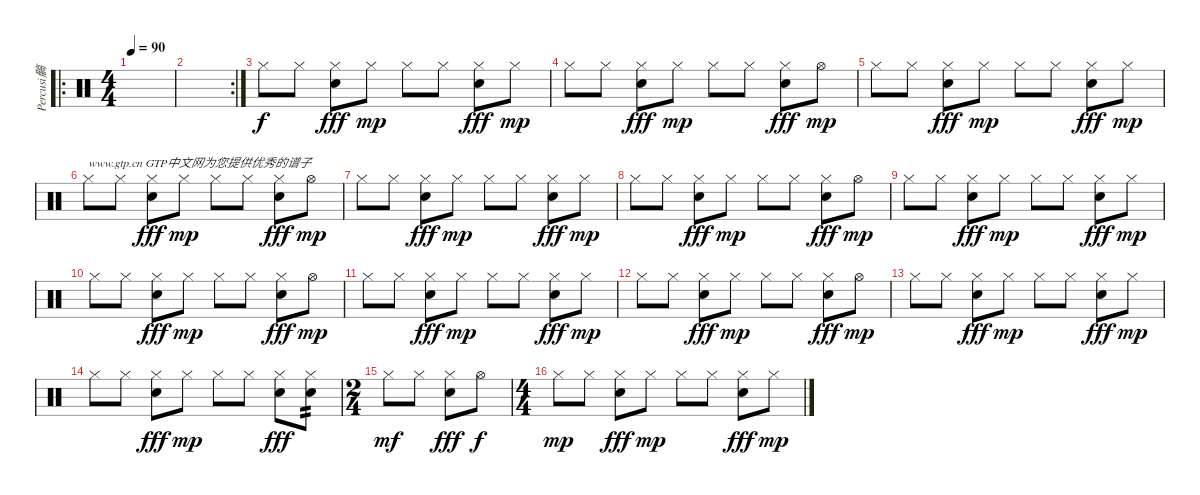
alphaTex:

\track ("Percusi髇" "Percusi髇") {instrument percussion}
\staff {score}
\articulation defaults
\ro
\ts (4 4)
\tempo 90
\clef neutral
\ks c
|
\rc 2
|
"Hi-Hat (closed)".8 "Hi-Hat (closed)".8 ("Hi-Hat (closed)" "Electric Snare (hit)").8{dy fff} "Hi-Hat (closed)".8{dy mp} "Hi-Hat (closed)".8 "Hi-Hat (closed)".8 ("Hi-Hat (closed)" "Electric Snare (hit)").8{dy fff} "Hi-Hat (closed)".8{dy mp} |
"Hi-Hat (closed)".8 "Hi-Hat (closed)".8 ("Hi-Hat (closed)" "Electric Snare (hit)").8{dy fff} "Hi-Hat (closed)".8{dy mp} "Hi-Hat (closed)".8 "Hi-Hat (closed)".8 ("Hi-Hat (closed)" "Electric Snare (hit)").8{dy fff} "Hi-Hat (open)".8{dy mp} |
"Hi-Hat (closed)".8 "Hi-Hat (closed)".8 ("Hi-Hat (closed)" "Electric Snare (hit)").8{dy fff} "Hi-Hat (closed)".8{dy mp} "Hi-Hat (closed)".8 "Hi-Hat (closed)".8 ("Hi-Hat (closed)" "Electric Snare (hit)").8{dy fff} "Hi-Hat (closed)".8{dy mp} |
"Hi-Hat (closed)".8{txt "www.gtp.cn GTP中文网为您提供优秀的谱子"} "Hi-Hat (closed)".8 ("Hi-Hat (closed)" "Electric Snare (hit)").8{dy fff} "Hi-Hat (closed)".8{dy mp} "Hi-Hat (closed)".8 "Hi-Hat (closed)".8 ("Hi-Hat (closed)" "Electric Snare (hit)").8{dy fff} "Hi-Hat (open)".8{dy mp} |
"Hi-Hat (closed)".8 "Hi-Hat (closed)".8 ("Hi-Hat (closed)" "Electric Snare (hit)").8{dy fff} "Hi-Hat (closed)".8{dy mp} "Hi-Hat (closed)".8 "Hi-Hat (closed)".8 ("Hi-Hat (closed)" "Electric Snare (hit)").8{dy fff} "Hi-Hat (closed)".8{dy mp} |
"Hi-Hat (closed)".8 "Hi-Hat (closed)".8 ("Hi-Hat (closed)" "Electric Snare (hit)").8{dy fff} "Hi-Hat (closed)".8{dy mp} "Hi-Hat (closed)".8 "Hi-Hat (closed)".8 ("Hi-Hat (closed)" "Electric Snare (hit)").8{dy fff} "Hi-Hat (open)".8{dy mp} |
"Hi-Hat (closed)".8 "Hi-Hat (closed)".8 ("Hi-Hat (closed)" "Electric Snare (hit)").8{dy fff} "Hi-Hat (closed)".8{dy mp} "Hi-Hat (closed)".8 "Hi-Hat (closed)".8 ("Hi-Hat (closed)" "Electric Snare (hit)").8{dy fff} "Hi-Hat (closed)".8{dy mp} |
"Hi-Hat (closed)".8 "Hi-Hat (closed)".8 ("Hi-Hat (closed)" "Electric Snare (hit)").8{dy fff} "Hi-Hat (closed)".8{dy mp} "Hi-Hat (closed)".8 "Hi-Hat (closed)".8 ("Hi-Hat (closed)" "Electric Snare (hit)").8{dy fff} "Hi-Hat (open)".8{dy mp} |
"Hi-Hat (closed)".8 "Hi-Hat (closed)".8 ("Hi-Hat (closed)" "Electric Snare (hit)").8{dy fff} "Hi-Hat (closed)".8{dy mp} "Hi-Hat (closed)".8 "Hi-Hat (closed)".8 ("Hi-Hat (closed)" "Electric Snare (hit)").8{dy fff} "Hi-Hat (closed)".8{dy mp} |
"Hi-Hat (closed)".8 "Hi-Hat (closed)".8 ("Hi-Hat (closed)" "Electric Snare (hit)").8{dy fff} "Hi-Hat (closed)".8{dy mp} "Hi-Hat (closed)".8 "Hi-Hat (closed)".8 ("Hi-Hat (closed)" "Electric Snare (hit)").8{dy fff} "Hi-Hat (open)".8{dy mp} |
"Hi-Hat (closed)".8 "Hi-Hat (closed)".8 ("Hi-Hat (closed)" "Electric Snare (hit)").8{dy fff} "Hi-Hat (closed)".8{dy mp} "Hi-Hat (closed)".8 "Hi-Hat (closed)".8 ("Hi-Hat (closed)" "Electric Snare (hit)").8{dy fff} "Hi-Hat (closed)".8{dy mp} |
"Hi-Hat (closed)".8 "Hi-Hat (closed)".8 ("Hi-Hat (closed)" "Electric Snare (hit)").8{dy fff} "Hi-Hat (closed)".8{dy mp} "Hi-Hat (closed)".8 "Hi-Hat (closed)".8 ("Hi-Hat (closed)" "Electric Snare (hit)").8{dy fff} ("Hi-Hat (closed)" "Electric Snare (hit)").8{tp 2} |
\ts (2 4)
"Hi-Hat (closed)".8{dy mf} "Hi-Hat (closed)".8 ("Hi-Hat (closed)" "Electric Snare (hit)").8{dy fff} "Hi-Hat (open)".8{dy f} |
\ts (4 4)
"Hi-Hat (closed)".8{dy mp} "Hi-Hat (closed)".8 ("Hi-Hat (closed)" "Electric Snare (hit)").8{dy fff} "Hi-Hat (closed)".8{dy mp} "Hi-Hat (closed)".8 "Hi-Hat (closed)".8 ("Hi-Hat (closed)" "Electric Snare (hit)").8{dy fff} "Hi-Hat (closed)".8{dy mp}
